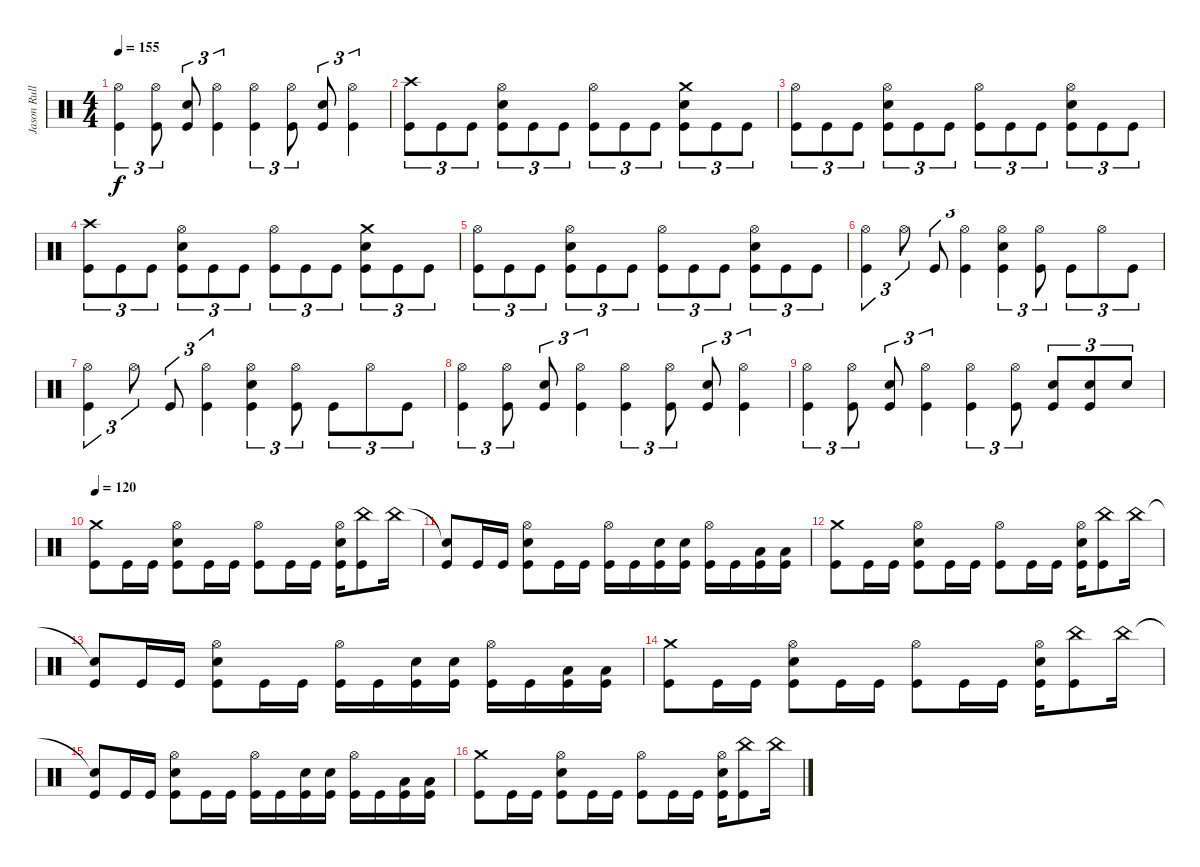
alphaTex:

\track ("Jason Rullo - BATTERIE" "Jason Rull") {instrument percussion}
\staff {score}
\articulation defaults
\ts (4 4)
\tempo 155
\clef neutral
\ks c
("Hi-Hat (open)" "Kick (hit)").4{tu (3 2) dy f} ("Hi-Hat (open)" "Kick (hit)").8{tu (3 2)} ("Snare (hit) 2" "Kick (hit)").8{tu (3 2)} ("Hi-Hat (open)" "Kick (hit)").4{tu (3 2)} ("Hi-Hat (open)" "Kick (hit)").4{tu (3 2)} ("Hi-Hat (open)" "Kick (hit)").8{tu (3 2)} ("Snare (hit) 2" "Kick (hit)").8{tu (3 2)} ("Hi-Hat (open)" "Kick (hit)").4{tu (3 2)} |
("Crash high (hit)" "Kick (hit)").8{tu (3 2)} "Kick (hit)".8{tu (3 2)} "Kick (hit)".8{tu (3 2)} ("Hi-Hat (open)" "Snare (hit) 2" "Kick (hit)").8{tu (3 2)} "Kick (hit)".8{tu (3 2)} "Kick (hit)".8{tu (3 2)} ("Hi-Hat (open)" "Kick (hit)").8{tu (3 2)} "Kick (hit)".8{tu (3 2)} "Kick (hit)".8{tu (3 2)} ("Crash medium (hit)" "Snare (hit) 2" "Kick (hit)").8{tu (3 2)} "Kick (hit)".8{tu (3 2)} "Kick (hit)".8{tu (3 2)} |
("Hi-Hat (open)" "Kick (hit)").8{tu (3 2)} "Kick (hit)".8{tu (3 2)} "Kick (hit)".8{tu (3 2)} ("Hi-Hat (open)" "Snare (hit) 2" "Kick (hit)").8{tu (3 2)} "Kick (hit)".8{tu (3 2)} "Kick (hit)".8{tu (3 2)} ("Hi-Hat (open)" "Kick (hit)").8{tu (3 2)} "Kick (hit)".8{tu (3 2)} "Kick (hit)".8{tu (3 2)} ("Hi-Hat (open)" "Snare (hit) 2" "Kick (hit)").8{tu (3 2)} "Kick (hit)".8{tu (3 2)} "Kick (hit)".8{tu (3 2)} |
("Crash high (hit)" "Kick (hit)").8{tu (3 2)} "Kick (hit)".8{tu (3 2)} "Kick (hit)".8{tu (3 2)} ("Hi-Hat (open)" "Snare (hit) 2" "Kick (hit)").8{tu (3 2)} "Kick (hit)".8{tu (3 2)} "Kick (hit)".8{tu (3 2)} ("Hi-Hat (open)" "Kick (hit)").8{tu (3 2)} "Kick (hit)".8{tu (3 2)} "Kick (hit)".8{tu (3 2)} ("Crash medium (hit)" "Snare (hit) 2" "Kick (hit)").8{tu (3 2)} "Kick (hit)".8{tu (3 2)} "Kick (hit)".8{tu (3 2)} |
("Hi-Hat (open)" "Kick (hit)").8{tu (3 2)} "Kick (hit)".8{tu (3 2)} "Kick (hit)".8{tu (3 2)} ("Hi-Hat (open)" "Snare (hit) 2" "Kick (hit)").8{tu (3 2)} "Kick (hit)".8{tu (3 2)} "Kick (hit)".8{tu (3 2)} ("Hi-Hat (open)" "Kick (hit)").8{tu (3 2)} "Kick (hit)".8{tu (3 2)} "Kick (hit)".8{tu (3 2)} ("Hi-Hat (open)" "Snare (hit) 2" "Kick (hit)").8{tu (3 2)} "Kick (hit)".8{tu (3 2)} "Kick (hit)".8{tu (3 2)} |
("Hi-Hat (open)" "Kick (hit)").4{tu (3 2)} "Hi-Hat (open)".8{tu (3 2)} "Kick (hit)".8{tu (3 2)} ("Hi-Hat (open)" "Kick (hit)").4{tu (3 2)} ("Hi-Hat (open)" "Snare (hit) 2" "Kick (hit)").4{tu (3 2)} ("Hi-Hat (open)" "Kick (hit)").8{tu (3 2)} "Kick (hit)".8{tu (3 2)} "Hi-Hat (open)".8{tu (3 2)} "Kick (hit)".8{tu (3 2)} |
("Hi-Hat (open)" "Kick (hit)").4{tu (3 2)} "Hi-Hat (open)".8{tu (3 2)} "Kick (hit)".8{tu (3 2)} ("Hi-Hat (open)" "Kick (hit)").4{tu (3 2)} ("Hi-Hat (open)" "Snare (hit) 2" "Kick (hit)").4{tu (3 2)} ("Hi-Hat (open)" "Kick (hit)").8{tu (3 2)} "Kick (hit)".8{tu (3 2)} "Hi-Hat (open)".8{tu (3 2)} "Kick (hit)".8{tu (3 2)} |
("Hi-Hat (open)" "Kick (hit)").4{tu (3 2)} ("Hi-Hat (open)" "Kick (hit)").8{tu (3 2)} ("Snare (hit) 2" "Kick (hit)").8{tu (3 2)} ("Hi-Hat (open)" "Kick (hit)").4{tu (3 2)} ("Hi-Hat (open)" "Kick (hit)").4{tu (3 2)} ("Hi-Hat (open)" "Kick (hit)").8{tu (3 2)} ("Snare (hit) 2" "Kick (hit)").8{tu (3 2)} ("Hi-Hat (open)" "Kick (hit)").4{tu (3 2)} |
("Hi-Hat (open)" "Kick (hit)").4{tu (3 2)} ("Hi-Hat (open)" "Kick (hit)").8{tu (3 2)} ("Snare (hit) 2" "Kick (hit)").8{tu (3 2)} ("Hi-Hat (open)" "Kick (hit)").4{tu (3 2)} ("Hi-Hat (open)" "Kick (hit)").4{tu (3 2)} ("Hi-Hat (open)" "Kick (hit)").8{tu (3 2)} ("Snare (hit) 2" "Kick (hit)").8{tu (3 2)} ("Snare (hit) 2" "Kick (hit)").8{tu (3 2)} "Snare (hit) 2".8{tu (3 2)} |
\tempo 120
("Crash medium (hit)" "Kick (hit)").8 "Kick (hit)".16 "Kick (hit)".16 ("Hi-Hat (open)" "Snare (hit) 2" "Kick (hit)").8 "Kick (hit)".16 "Kick (hit)".16 ("Hi-Hat (open)" "Kick (hit)").8 "Kick (hit)".16 "Kick (hit)".16 ("Hi-Hat (open)" "Snare (hit) 2" "Kick (hit)").16 ("China (hit)" "Kick (hit)").8 "China (hit)".16 |
("Snare (hit)"{t} "Kick (hit)").8 "Kick (hit)".16 "Kick (hit)".16 ("Hi-Hat (open)" "Snare (hit) 2" "Kick (hit)").8 "Kick (hit)".16 "Kick (hit)".16 ("Hi-Hat (open)" "Kick (hit)").16 "Kick (hit)".16 ("Snare (hit) 2" "Kick (hit)").16 ("Snare (hit) 2" "Kick (hit)").16 ("Hi-Hat (open)" "Kick (hit)").16 "Kick (hit)".16 ("Low Tom (hit)" "Kick (hit)").16 ("Low Tom (hit)" "Kick (hit)").16 |
("Crash medium (hit)" "Kick (hit)").8 "Kick (hit)".16 "Kick (hit)".16 ("Hi-Hat (open)" "Snare (hit) 2" "Kick (hit)").8 "Kick (hit)".16 "Kick (hit)".16 ("Hi-Hat (open)" "Kick (hit)").8 "Kick (hit)".16 "Kick (hit)".16 ("Hi-Hat (open)" "Snare (hit) 2" "Kick (hit)").16 ("China (hit)" "Kick (hit)").8 "China (hit)".16 |
("Snare (hit)"{t} "Kick (hit)").8 "Kick (hit)".16 "Kick (hit)".16 ("Hi-Hat (open)" "Snare (hit) 2" "Kick (hit)").8 "Kick (hit)".16 "Kick (hit)".16 ("Hi-Hat (open)" "Kick (hit)").16 "Kick (hit)".16 ("Snare (hit) 2" "Kick (hit)").16 ("Snare (hit) 2" "Kick (hit)").16 ("Hi-Hat (open)" "Kick (hit)").16 "Kick (hit)".16 ("Low Tom (hit)" "Kick (hit)").16 ("Low Tom (hit)" "Kick (hit)").16 |
("Crash medium (hit)" "Kick (hit)").8 "Kick (hit)".16 "Kick (hit)".16 ("Hi-Hat (open)" "Snare (hit) 2" "Kick (hit)").8 "Kick (hit)".16 "Kick (hit)".16 ("Hi-Hat (open)" "Kick (hit)").8 "Kick (hit)".16 "Kick (hit)".16 ("Hi-Hat (open)" "Snare (hit) 2" "Kick (hit)").16 ("China (hit)" "Kick (hit)").8 "China (hit)".16 |
("Snare (hit)"{t} "Kick (hit)").8 "Kick (hit)".16 "Kick (hit)".16 ("Hi-Hat (open)" "Snare (hit) 2" "Kick (hit)").8 "Kick (hit)".16 "Kick (hit)".16 ("Hi-Hat (open)" "Kick (hit)").16 "Kick (hit)".16 ("Snare (hit) 2" "Kick (hit)").16 ("Snare (hit) 2" "Kick (hit)").16 ("Hi-Hat (open)" "Kick (hit)").16 "Kick (hit)".16 ("Low Tom (hit)" "Kick (hit)").16 ("Low Tom (hit)" "Kick (hit)").16 |
("Crash medium (hit)" "Kick (hit)").8 "Kick (hit)".16 "Kick (hit)".16 ("Hi-Hat (open)" "Snare (hit) 2" "Kick (hit)").8 "Kick (hit)".16 "Kick (hit)".16 ("Hi-Hat (open)" "Kick (hit)").8 "Kick (hit)".16 "Kick (hit)".16 ("Hi-Hat (open)" "Snare (hit) 2" "Kick (hit)").16 ("China (hit)" "Kick (hit)").8 "China (hit)".16
